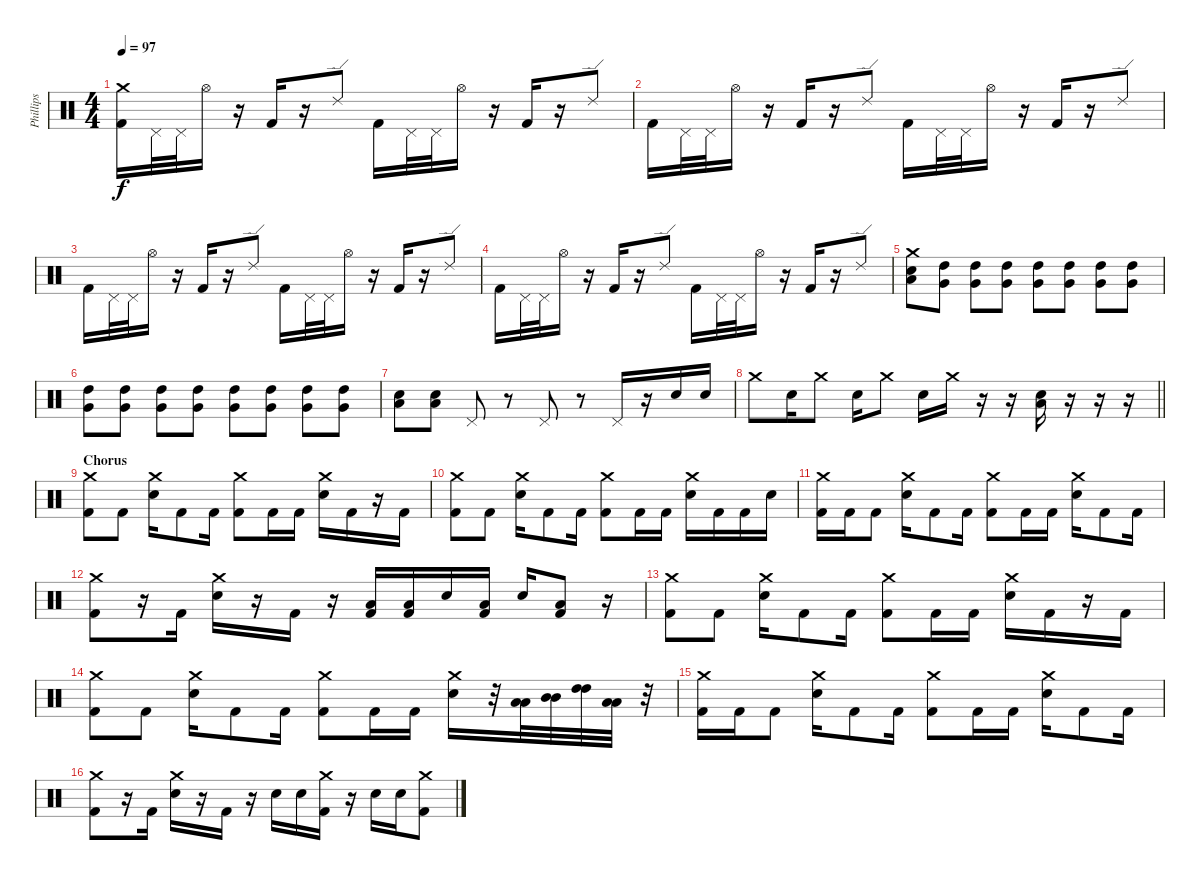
\track ("Phillips" "Phillips") {instrument percussion}
\staff {score}
\articulation defaults
\ts (4 4)
\tempo 97
\clef neutral
\ks c
("Crash medium (hit)" "Kick (hit) 2").16{dy f} "Pedal Hi-Hat (hit)".32 "Pedal Hi-Hat (hit)".32 "Hi-Hat (open)".16 r.16 "Kick (hit) 2".16 r.16 "Ride (edge) 2".8 "Kick (hit) 2".16 "Pedal Hi-Hat (hit)".32 "Pedal Hi-Hat (hit)".32 "Hi-Hat (open)".16 r.16 "Kick (hit) 2".16 r.16 "Ride (edge) 2".8 |
"Kick (hit) 2".16 "Pedal Hi-Hat (hit)".32 "Pedal Hi-Hat (hit)".32 "Hi-Hat (open)".16 r.16 "Kick (hit) 2".16 r.16 "Ride (edge) 2".8 "Kick (hit) 2".16 "Pedal Hi-Hat (hit)".32 "Pedal Hi-Hat (hit)".32 "Hi-Hat (open)".16 r.16 "Kick (hit) 2".16 r.16 "Ride (edge) 2".8 |
"Kick (hit) 2".16 "Pedal Hi-Hat (hit)".32 "Pedal Hi-Hat (hit)".32 "Hi-Hat (open)".16 r.16 "Kick (hit) 2".16 r.16 "Ride (edge) 2".8 "Kick (hit) 2".16 "Pedal Hi-Hat (hit)".32 "Pedal Hi-Hat (hit)".32 "Hi-Hat (open)".16 r.16 "Kick (hit) 2".16 r.16 "Ride (edge) 2".8 |
"Kick (hit) 2".16 "Pedal Hi-Hat (hit)".32 "Pedal Hi-Hat (hit)".32 "Hi-Hat (open)".16 r.16 "Kick (hit) 2".16 r.16 "Ride (edge) 2".8 "Kick (hit) 2".16 "Pedal Hi-Hat (hit)".32 "Pedal Hi-Hat (hit)".32 "Hi-Hat (open)".16 r.16 "Kick (hit) 2".16 r.16 "Ride (edge) 2".8 |
("Crash medium (hit)" "Low Floor Tom (hit)" "Electric Snare (hit)").8 ("Very Low Tom (hit)" "High Tom (hit)").8 ("Very Low Tom (hit)" "High Tom (hit)").8 ("Very Low Tom (hit)" "High Tom (hit)").8 ("Very Low Tom (hit)" "High Tom (hit)").8 ("Very Low Tom (hit)" "High Tom (hit)").8 ("Very Low Tom (hit)" "High Tom (hit)").8 ("Very Low Tom (hit)" "High Tom (hit)").8 |
("Very Low Tom (hit)" "High Tom (hit)").8 ("Very Low Tom (hit)" "High Tom (hit)").8 ("Very Low Tom (hit)" "High Tom (hit)").8 ("Very Low Tom (hit)" "High Tom (hit)").8 ("Very Low Tom (hit)" "High Tom (hit)").8 ("Very Low Tom (hit)" "High Tom (hit)").8 ("Very Low Tom (hit)" "High Tom (hit)").8 ("Very Low Tom (hit)" "High Tom (hit)").8 |
("Low Floor Tom (hit)" "Electric Snare (hit)").8 ("Low Floor Tom (hit)" "Electric Snare (hit)").8 "Pedal Hi-Hat (hit)".8 r.8 "Pedal Hi-Hat (hit)".8 r.8 "Pedal Hi-Hat (hit)".16 r.16 "Electric Snare (hit)".16 "Electric Snare (hit)".16 |
\barLineRight lightlight "Crash medium (hit)".8 "Electric Snare (hit)".16 "Crash medium (hit)".8 "Electric Snare (hit)".16 "Crash medium (hit)".8 "Electric Snare (hit)".16 "Crash medium (hit)".16
r.16 r.16 ("Low Floor Tom (hit)" "Electric Snare (hit)").16 r.16 r.16 r.16 |
\section ("" "Chorus")
("Crash medium (hit)" "Kick (hit) 2").8 "Kick (hit) 2".8 ("Crash medium (hit)" "Electric Snare (hit)").16 "Kick (hit) 2".8 "Kick (hit) 2".16 ("Crash medium (hit)" "Kick (hit) 2").8 "Kick (hit) 2".16 "Kick (hit) 2".16 ("Crash medium (hit)" "Electric Snare (hit)").16 "Kick (hit) 2".16 r.16 "Kick (hit) 2".16 |
("Crash medium (hit)" "Kick (hit) 2").8 "Kick (hit) 2".8 ("Crash medium (hit)" "Electric Snare (hit)").16 "Kick (hit) 2".8 "Kick (hit) 2".16 ("Crash medium (hit)" "Kick (hit) 2").8 "Kick (hit) 2".16 "Kick (hit) 2".16 ("Crash medium (hit)" "Electric Snare (hit)").16 "Kick (hit) 2".16 "Kick (hit) 2".16 "Electric Snare (hit)".16 |
("Crash medium (hit)" "Kick (hit) 2").16 "Kick (hit) 2".16 "Kick (hit) 2".8 ("Crash medium (hit)" "Electric Snare (hit)").16 "Kick (hit) 2".8 "Kick (hit) 2".16 ("Crash medium (hit)" "Kick (hit) 2").8 "Kick (hit) 2".16 "Kick (hit) 2".16 ("Crash medium (hit)" "Electric Snare (hit)").16 "Kick (hit) 2".8 "Kick (hit) 2".16 |
("Crash medium (hit)" "Kick (hit) 2").8 r.16 "Kick (hit) 2".16 ("Crash medium (hit)" "Electric Snare (hit)").16 r.16 "Kick (hit) 2".16 r.16 ("Low Tom (hit)" "Kick (hit) 2").16 ("Low Tom (hit)" "Kick (hit) 2").16 "Electric Snare (hit)".16 ("Low Tom (hit)" "Kick (hit) 2").16 "Electric Snare (hit)".16 ("Low Tom (hit)" "Kick (hit) 2").8 r.16 |
("Crash medium (hit)" "Kick (hit) 2").8 "Kick (hit) 2".8 ("Crash medium (hit)" "Electric Snare (hit)").16 "Kick (hit) 2".8 "Kick (hit) 2".16 ("Crash medium (hit)" "Kick (hit) 2").8 "Kick (hit) 2".16 "Kick (hit) 2".16 ("Crash medium (hit)" "Electric Snare (hit)").16 "Kick (hit) 2".16 r.16 "Kick (hit) 2".16 |
("Crash medium (hit)" "Kick (hit) 2").8 "Kick (hit) 2".8 ("Crash medium (hit)" "Electric Snare (hit)").16 "Kick (hit) 2".8 "Kick (hit) 2".16 ("Crash medium (hit)" "Kick (hit) 2").8 "Kick (hit) 2".16 "Kick (hit) 2".16 ("Crash medium (hit)" "Electric Snare (hit)").16 r.32 ("Low Tom (hit)" "Low Tom (hit)").32 ("Mid Tom (hit)" "Mid Tom (hit)").32 ("High Tom (hit)" "High Tom (hit)").32 ("Low Tom (hit)" "Low Tom (hit)").32 r.32 |
("Crash medium (hit)" "Kick (hit) 2").16 "Kick (hit) 2".16 "Kick (hit) 2".8 ("Crash medium (hit)" "Electric Snare (hit)").16 "Kick (hit) 2".8 "Kick (hit) 2".16 ("Crash medium (hit)" "Kick (hit) 2").8 "Kick (hit) 2".16 "Kick (hit) 2".16 ("Crash medium (hit)" "Electric Snare (hit)").16 "Kick (hit) 2".8 "Kick (hit) 2".16 |
("Crash medium (hit)" "Kick (hit) 2").8 r.16 "Kick (hit) 2".16 ("Crash medium (hit)" "Electric Snare (hit)").16 r.16 "Kick (hit) 2".16 r.16 "Electric Snare (hit)".16 "Electric Snare (hit)".16 ("Crash medium (hit)" "Kick (hit) 2").16 r.16 "Electric Snare (hit)".16 "Electric Snare (hit)".16 ("Crash medium (hit)" "Kick (hit) 2").8
